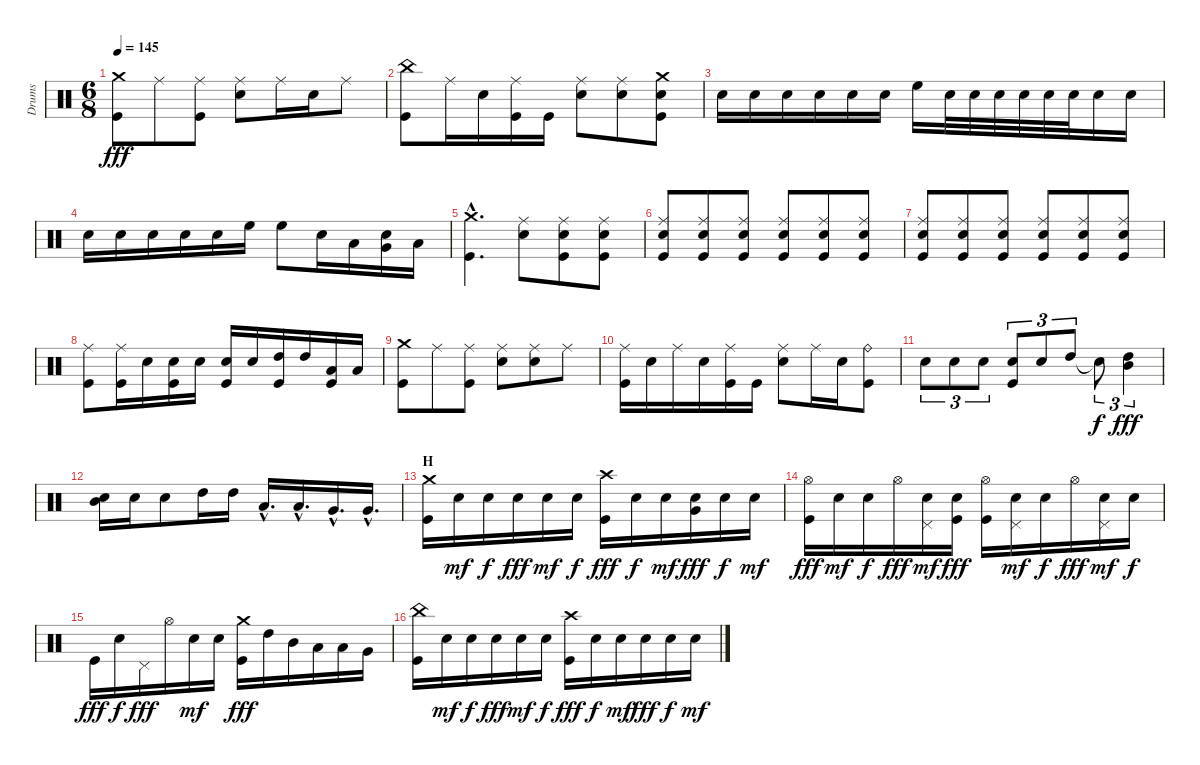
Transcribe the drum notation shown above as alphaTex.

\track ("Drums" "Drums") {instrument percussion}
\staff {score}
\articulation defaults
\ts (6 8)
\tempo 145
\clef neutral
\ks c
("Crash medium (hit)" "Kick (hit)").8{dy fff} "Ride (middle)".8 ("Ride (middle)" "Kick (hit)").8 ("Ride (middle)" "Snare (hit) 2").8 "Ride (middle)".16 "Snare (hit) 2".16 "Ride (middle)".8 |
("China (hit)" "Kick (hit)").8 "Ride (middle)".16 "Snare (hit) 2".16 ("Ride (middle)" "Kick (hit)").16 "Kick (hit)".16 ("Ride (middle)" "Snare (hit) 2").8 ("Ride (middle)" "Snare (hit) 2").8 ("Crash medium (hit)" "Snare (hit) 2" "Kick (hit)").8 |
"Snare (hit) 2".16 "Snare (hit) 2".16 "Snare (hit) 2".16 "Snare (hit) 2".16 "Snare (hit) 2".16 "Snare (hit) 2".16 "High Floor Tom (hit)".16 "Snare (hit) 2".32 "Snare (hit) 2".32 "Snare (hit) 2".32 "Snare (hit) 2".32 "Snare (hit) 2".32 "Snare (hit) 2".32 "Snare (hit) 2".16 "Snare (hit) 2".16 |
"Snare (hit) 2".16 "Snare (hit) 2".16 "Snare (hit) 2".16 "Snare (hit) 2".16 "Snare (hit) 2".16 "High Floor Tom (hit)".16 "High Floor Tom (hit)".8 "Snare (hit) 2".16 "Low Tom (hit)".16 ("Very Low Tom (hit)" "Snare (hit) 2").16 "Low Floor Tom (hit)".16 |
("Crash medium (hit)"{hac} "Kick (hit)"{hac}).4{d} ("Ride (middle)" "Snare (hit) 2").8 ("Ride (middle)" "Snare (hit) 2" "Kick (hit)").8 ("Ride (middle)" "Snare (hit) 2" "Kick (hit)").8 |
("Ride (middle)" "Snare (hit) 2" "Kick (hit)").8 ("Ride (middle)" "Snare (hit) 2" "Kick (hit)").8 ("Ride (middle)" "Snare (hit) 2" "Kick (hit)").8 ("Ride (middle)" "Snare (hit) 2" "Kick (hit)").8 ("Ride (middle)" "Snare (hit) 2" "Kick (hit)").8 ("Ride (middle)" "Snare (hit) 2" "Kick (hit)").8 |
("Ride (middle)" "Snare (hit) 2" "Kick (hit)").8 ("Ride (middle)" "Snare (hit) 2" "Kick (hit)").8 ("Ride (middle)" "Snare (hit) 2" "Kick (hit)").8 ("Ride (middle)" "Snare (hit) 2" "Kick (hit)").8 ("Ride (middle)" "Snare (hit) 2" "Kick (hit)").8 ("Ride (middle)" "Snare (hit) 2" "Kick (hit)").8 |
("Ride (middle)" "Kick (hit)").8 ("Ride (middle)" "Kick (hit)").16 "Snare (hit) 2".16 ("Snare (hit) 2" "Kick (hit)").16 "Snare (hit) 2".16 ("Snare (hit) 2" "Kick (hit)").16 "Snare (hit) 2".16 ("High Tom (hit)" "Kick (hit)").16 "High Tom (hit)".16 ("Low Tom (hit)" "Kick (hit)").16 "Low Tom (hit)".16 |
("Crash medium (hit)" "Kick (hit)").8 "Ride (middle)".8 ("Ride (middle)" "Kick (hit)").8 ("Ride (middle)" "Snare (hit) 2").8 ("Ride (middle)" "Snare (hit) 2").8 "Ride (middle)".8 |
("Ride (middle)" "Kick (hit)").16 "Snare (hit) 2".16 "Ride (middle)".16 "Snare (hit) 2".16 ("Ride (middle)" "Kick (hit)").16 "Kick (hit)".16 ("Ride (middle)" "Snare (hit) 2").8 "Ride (middle)".16 "Snare (hit) 2".16 ("Ride (bell)" "Kick (hit)").8 |
"Snare (hit) 2".8{tu (3 2)} "Snare (hit) 2".8{tu (3 2)} "Snare (hit) 2".8{tu (3 2)} ("Snare (hit) 2" "Kick (hit)").8{tu (3 2)} "Snare (hit) 2".8{tu (3 2)} "High Tom (hit)".8{tu (3 2)} "Snare (hit)"{t}.8{tu (3 2) dy f} ("High Tom (hit)" "Mid Tom (hit)").4{tu (3 2) dy fff} |
("Mid Tom (hit)" "Snare (hit) 2").16 "Snare (hit) 2".16 "Snare (hit) 2".8 "High Tom (hit)".16 "High Tom (hit)".16 "Low Tom (hit)"{hac}.16{d} "Low Tom (hit)"{hac}.16{d} "Very Low Tom (hit)"{hac}.16{d} "Very Low Tom (hit)"{hac}.16{d} |
\section ("" "H")
("Crash medium (hit)" "Kick (hit)").16 "Snare (hit) 2".16{dy mf} "Snare (hit) 2".16{dy f} "Snare (hit) 2".16{dy fff} "Snare (hit) 2".16{dy mf} "Snare (hit) 2".16{dy f} ("Crash high (hit)" "Kick (hit)").16{dy fff} "Snare (hit) 2".16{dy f} "Snare (hit) 2".16{dy mf} ("Very Low Tom (hit)" "Snare (hit) 2").16{dy fff} "Snare (hit) 2".16{dy f} "Snare (hit) 2".16{dy mf} |
("Hi-Hat (open)" "Kick (hit)").16{dy fff} "Snare (hit) 2".16{dy mf} "Snare (hit) 2".16{dy f} "Hi-Hat (open)".16{dy fff} ("Pedal Hi-Hat (hit)" "Snare (hit) 2").16{dy mf} ("Snare (hit) 2" "Kick (hit)").16{dy fff} ("Hi-Hat (open)" "Kick (hit)").16 ("Pedal Hi-Hat (hit)" "Snare (hit) 2").16{dy mf} "Snare (hit) 2".16{dy f} "Hi-Hat (open)".16{dy fff} ("Pedal Hi-Hat (hit)" "Snare (hit) 2").16{dy mf} "Snare (hit) 2".16{dy f} |
"Kick (hit)".16{dy fff} "Snare (hit) 2".16{dy f} "Pedal Hi-Hat (hit)".16{dy fff} "Hi-Hat (open)".16 "Snare (hit) 2".16{dy mf} "Snare (hit) 2".16 ("Crash medium (hit)" "Kick (hit)").16{dy fff} "High Tom (hit)".16 "Mid Tom (hit)".16 "Low Tom (hit)".16 "Low Tom (hit)".16 "Very Low Tom (hit)".16 |
("China (hit)" "Kick (hit)").16 "Snare (hit) 2".16{dy mf} "Snare (hit) 2".16{dy f} "Snare (hit) 2".16{dy fff} "Snare (hit) 2".16{dy mf} "Snare (hit) 2".16{dy f} ("Crash high (hit)" "Kick (hit)").16{dy fff} "Snare (hit) 2".16{dy f} "Snare (hit) 2".16{dy mf} "Snare (hit) 2".16{dy fff} "Snare (hit) 2".16{dy f} "Snare (hit) 2".16{dy mf}
